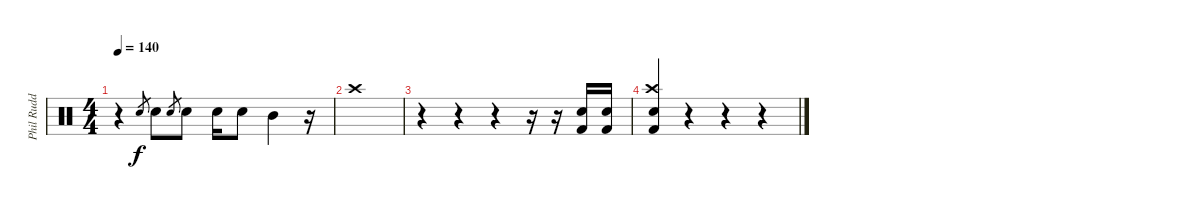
\track ("Phil Rudd" "Phil Rudd") {instrument percussion}
\staff {score}
\articulation defaults
\ts (4 4)
\tempo 140
\clef neutral
\ks c
r.4{dy f} "Electric Snare (hit)".8{gr} "Electric Snare (hit)".8 "Electric Snare (hit)".8{gr} "Electric Snare (hit)".8 "Electric Snare (hit)".16 "Electric Snare (hit)".8 "Mid Tom (hit)".4 r.16 |
"Crash high (hit)".1 |
r.4 r.4 r.4 r.16 r.16 ("Electric Snare (hit)" "Kick (hit) 2").16 ("Electric Snare (hit)" "Kick (hit) 2").16 |
("Crash high (hit)" "Electric Snare (hit)" "Kick (hit) 2").4 r.4 r.4 r.4
